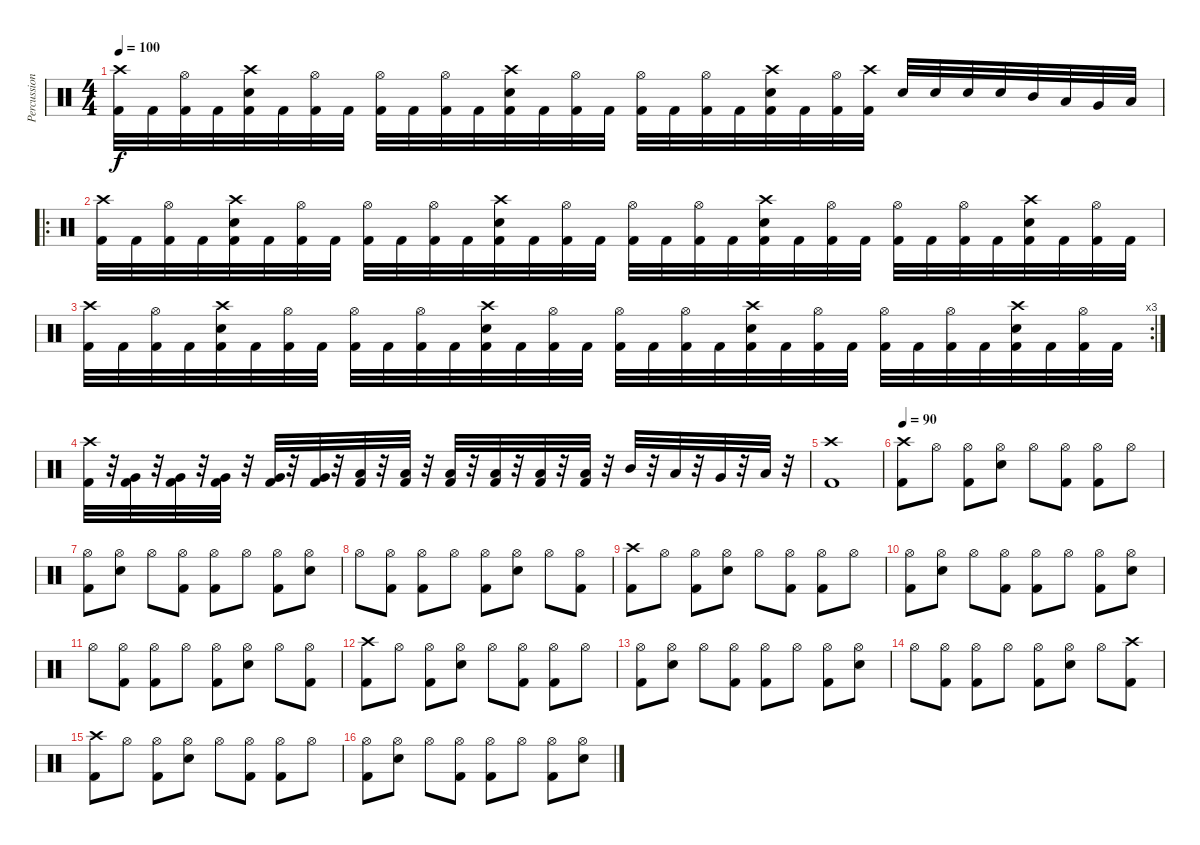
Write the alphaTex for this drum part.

\track ("Percussion" "Percussion") {instrument percussion}
\staff {score}
\articulation defaults
\ts (4 4)
\tempo 100
\clef neutral
\ks c
("Crash high (hit)" "Kick (hit) 2").32{dy f} "Kick (hit) 2".32 ("Hi-Hat (open)" "Kick (hit) 2").32 "Kick (hit) 2".32 ("Crash high (hit)" "Snare (hit) 2" "Kick (hit) 2").32 "Kick (hit) 2".32 ("Hi-Hat (open)" "Kick (hit) 2").32 "Kick (hit) 2".32 ("Hi-Hat (open)" "Kick (hit) 2").32 "Kick (hit) 2".32 ("Hi-Hat (open)" "Kick (hit) 2").32 "Kick (hit) 2".32 ("Crash high (hit)" "Snare (hit) 2" "Kick (hit) 2").32 "Kick (hit) 2".32 ("Hi-Hat (open)" "Kick (hit) 2").32 "Kick (hit) 2".32 ("Hi-Hat (open)" "Kick (hit) 2").32 "Kick (hit) 2".32 ("Hi-Hat (open)" "Kick (hit) 2").32 "Kick (hit) 2".32 ("Crash high (hit)" "Snare (hit) 2" "Kick (hit) 2").32 "Kick (hit) 2".32 ("Hi-Hat (open)" "Kick (hit) 2").32 ("Crash high (hit)" "Kick (hit) 2").32 "Snare (hit) 2".32 "Snare (hit) 2".32 "Snare (hit) 2".32 "Snare (hit) 2".32 "Mid Tom (hit)".32 "Low Tom (hit)".32 "Very Low Tom (hit)".32 "Low Floor Tom (hit)".32 |
\ro
("Crash high (hit)" "Kick (hit) 2").32 "Kick (hit) 2".32 ("Hi-Hat (open)" "Kick (hit) 2").32 "Kick (hit) 2".32 ("Crash high (hit)" "Snare (hit) 2" "Kick (hit) 2").32 "Kick (hit) 2".32 ("Hi-Hat (open)" "Kick (hit) 2").32 "Kick (hit) 2".32 ("Hi-Hat (open)" "Kick (hit) 2").32 "Kick (hit) 2".32 ("Hi-Hat (open)" "Kick (hit) 2").32 "Kick (hit) 2".32 ("Crash high (hit)" "Snare (hit) 2" "Kick (hit) 2").32 "Kick (hit) 2".32 ("Hi-Hat (open)" "Kick (hit) 2").32 "Kick (hit) 2".32 ("Hi-Hat (open)" "Kick (hit) 2").32 "Kick (hit) 2".32 ("Hi-Hat (open)" "Kick (hit) 2").32 "Kick (hit) 2".32 ("Crash high (hit)" "Snare (hit) 2" "Kick (hit) 2").32 "Kick (hit) 2".32 ("Hi-Hat (open)" "Kick (hit) 2").32 "Kick (hit) 2".32 ("Hi-Hat (open)" "Kick (hit) 2").32 "Kick (hit) 2".32 ("Hi-Hat (open)" "Kick (hit) 2").32 "Kick (hit) 2".32 ("Crash high (hit)" "Snare (hit) 2" "Kick (hit) 2").32 "Kick (hit) 2".32 ("Hi-Hat (open)" "Kick (hit) 2").32 "Kick (hit) 2".32 |
\rc 3
("Crash high (hit)" "Kick (hit) 2").32 "Kick (hit) 2".32 ("Hi-Hat (open)" "Kick (hit) 2").32 "Kick (hit) 2".32 ("Crash high (hit)" "Snare (hit) 2" "Kick (hit) 2").32 "Kick (hit) 2".32 ("Hi-Hat (open)" "Kick (hit) 2").32 "Kick (hit) 2".32 ("Hi-Hat (open)" "Kick (hit) 2").32 "Kick (hit) 2".32 ("Hi-Hat (open)" "Kick (hit) 2").32 "Kick (hit) 2".32 ("Crash high (hit)" "Snare (hit) 2" "Kick (hit) 2").32 "Kick (hit) 2".32 ("Hi-Hat (open)" "Kick (hit) 2").32 "Kick (hit) 2".32 ("Hi-Hat (open)" "Kick (hit) 2").32 "Kick (hit) 2".32 ("Hi-Hat (open)" "Kick (hit) 2").32 "Kick (hit) 2".32 ("Crash high (hit)" "Snare (hit) 2" "Kick (hit) 2").32 "Kick (hit) 2".32 ("Hi-Hat (open)" "Kick (hit) 2").32 "Kick (hit) 2".32 ("Hi-Hat (open)" "Kick (hit) 2").32 "Kick (hit) 2".32 ("Hi-Hat (open)" "Kick (hit) 2").32 "Kick (hit) 2".32 ("Crash high (hit)" "Snare (hit) 2" "Kick (hit) 2").32 "Kick (hit) 2".32 ("Hi-Hat (open)" "Kick (hit) 2").32 "Kick (hit) 2".32 |
("Crash high (hit)" "Kick (hit) 2").32 r.32 ("Very Low Tom (hit)" "Kick (hit) 2").32 r.32 ("Very Low Tom (hit)" "Kick (hit) 2").32 r.32 ("Very Low Tom (hit)" "Kick (hit) 2").32 r.32 ("Very Low Tom (hit)" "Kick (hit) 2").32 r.32 ("Very Low Tom (hit)" "Kick (hit) 2").32 r.32 ("Low Floor Tom (hit)" "Kick (hit) 2").32 r.32 ("Low Floor Tom (hit)" "Kick (hit) 2").32 r.32 ("Low Floor Tom (hit)" "Kick (hit) 2").32 r.32 ("Low Floor Tom (hit)" "Kick (hit) 2").32 r.32 ("Low Floor Tom (hit)" "Kick (hit) 2").32 r.32 ("Low Floor Tom (hit)" "Kick (hit) 2").32 r.32 "Mid Tom (hit)".32 r.32 "Low Tom (hit)".32 r.32 "Very Low Tom (hit)".32 r.32 "Low Floor Tom (hit)".32 r.32 |
("Crash high (hit)" "Kick (hit) 2").1 |
\tempo 90
("Crash high (hit)" "Kick (hit) 2").8 "Hi-Hat (open)".8 ("Hi-Hat (open)" "Kick (hit) 2").8 ("Hi-Hat (open)" "Snare (hit) 2").8 "Hi-Hat (open)".8 ("Hi-Hat (open)" "Kick (hit) 2").8 ("Hi-Hat (open)" "Kick (hit) 2").8 "Hi-Hat (open)".8 |
("Hi-Hat (open)" "Kick (hit) 2").8 ("Hi-Hat (open)" "Snare (hit) 2").8 "Hi-Hat (open)".8 ("Hi-Hat (open)" "Kick (hit) 2").8 ("Hi-Hat (open)" "Kick (hit) 2").8 "Hi-Hat (open)".8 ("Hi-Hat (open)" "Kick (hit) 2").8 ("Hi-Hat (open)" "Snare (hit) 2").8 |
"Hi-Hat (open)".8 ("Hi-Hat (open)" "Kick (hit) 2").8 ("Hi-Hat (open)" "Kick (hit) 2").8 "Hi-Hat (open)".8 ("Hi-Hat (open)" "Kick (hit) 2").8 ("Hi-Hat (open)" "Snare (hit) 2").8 "Hi-Hat (open)".8 ("Hi-Hat (open)" "Kick (hit) 2").8 |
("Crash high (hit)" "Kick (hit) 2").8 "Hi-Hat (open)".8 ("Hi-Hat (open)" "Kick (hit) 2").8 ("Hi-Hat (open)" "Snare (hit) 2").8 "Hi-Hat (open)".8 ("Hi-Hat (open)" "Kick (hit) 2").8 ("Hi-Hat (open)" "Kick (hit) 2").8 "Hi-Hat (open)".8 |
("Hi-Hat (open)" "Kick (hit) 2").8 ("Hi-Hat (open)" "Snare (hit) 2").8 "Hi-Hat (open)".8 ("Hi-Hat (open)" "Kick (hit) 2").8 ("Hi-Hat (open)" "Kick (hit) 2").8 "Hi-Hat (open)".8 ("Hi-Hat (open)" "Kick (hit) 2").8 ("Hi-Hat (open)" "Snare (hit) 2").8 |
"Hi-Hat (open)".8 ("Hi-Hat (open)" "Kick (hit) 2").8 ("Hi-Hat (open)" "Kick (hit) 2").8 "Hi-Hat (open)".8 ("Hi-Hat (open)" "Kick (hit) 2").8 ("Hi-Hat (open)" "Snare (hit) 2").8 "Hi-Hat (open)".8 ("Hi-Hat (open)" "Kick (hit) 2").8 |
("Crash high (hit)" "Kick (hit) 2").8 "Hi-Hat (open)".8 ("Hi-Hat (open)" "Kick (hit) 2").8 ("Hi-Hat (open)" "Snare (hit) 2").8 "Hi-Hat (open)".8 ("Hi-Hat (open)" "Kick (hit) 2").8 ("Hi-Hat (open)" "Kick (hit) 2").8 "Hi-Hat (open)".8 |
("Hi-Hat (open)" "Kick (hit) 2").8 ("Hi-Hat (open)" "Snare (hit) 2").8 "Hi-Hat (open)".8 ("Hi-Hat (open)" "Kick (hit) 2").8 ("Hi-Hat (open)" "Kick (hit) 2").8 "Hi-Hat (open)".8 ("Hi-Hat (open)" "Kick (hit) 2").8 ("Hi-Hat (open)" "Snare (hit) 2").8 |
"Hi-Hat (open)".8 ("Hi-Hat (open)" "Kick (hit) 2").8 ("Hi-Hat (open)" "Kick (hit) 2").8 "Hi-Hat (open)".8 ("Hi-Hat (open)" "Kick (hit) 2").8 ("Hi-Hat (open)" "Snare (hit) 2").8 "Hi-Hat (open)".8 ("Crash high (hit)" "Kick (hit) 2").8 |
("Crash high (hit)" "Kick (hit) 2").8 "Hi-Hat (open)".8 ("Hi-Hat (open)" "Kick (hit) 2").8 ("Hi-Hat (open)" "Snare (hit) 2").8 "Hi-Hat (open)".8 ("Hi-Hat (open)" "Kick (hit) 2").8 ("Hi-Hat (open)" "Kick (hit) 2").8 "Hi-Hat (open)".8 |
("Hi-Hat (open)" "Kick (hit) 2").8 ("Hi-Hat (open)" "Snare (hit) 2").8 "Hi-Hat (open)".8 ("Hi-Hat (open)" "Kick (hit) 2").8 ("Hi-Hat (open)" "Kick (hit) 2").8 "Hi-Hat (open)".8 ("Hi-Hat (open)" "Kick (hit) 2").8 ("Hi-Hat (open)" "Snare (hit) 2").8
